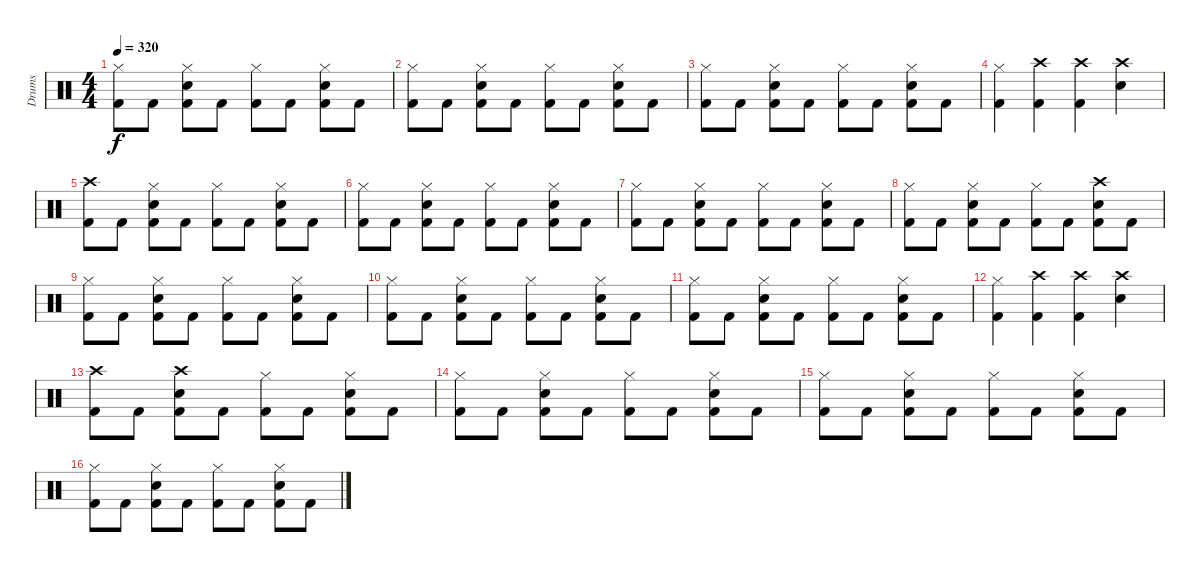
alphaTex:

\track ("Drums" "Drums") {instrument percussion}
\staff {score}
\articulation defaults
\ts (4 4)
\tempo 320
\clef neutral
\ks c
("Hi-Hat (closed)" "Kick (hit) 2").8{dy f} "Kick (hit) 2".8 ("Hi-Hat (closed)" "Snare (hit) 2" "Kick (hit) 2").8 "Kick (hit) 2".8 ("Kick (hit) 2" "Hi-Hat (closed)").8 "Kick (hit) 2".8 ("Hi-Hat (closed)" "Snare (hit) 2" "Kick (hit) 2").8 "Kick (hit) 2".8 |
("Hi-Hat (closed)" "Kick (hit) 2").8 "Kick (hit) 2".8 ("Snare (hit) 2" "Hi-Hat (closed)" "Kick (hit) 2").8 "Kick (hit) 2".8 ("Kick (hit) 2" "Hi-Hat (closed)").8 "Kick (hit) 2".8 ("Snare (hit) 2" "Hi-Hat (closed)" "Kick (hit) 2").8 "Kick (hit) 2".8 |
("Hi-Hat (closed)" "Kick (hit) 2").8 "Kick (hit) 2".8 ("Kick (hit) 2" "Snare (hit) 2" "Hi-Hat (closed)").8 "Kick (hit) 2".8 ("Hi-Hat (closed)" "Kick (hit) 2").8 "Kick (hit) 2".8 ("Snare (hit) 2" "Hi-Hat (closed)" "Kick (hit) 2").8 "Kick (hit) 2".8 |
("Kick (hit) 2" "Hi-Hat (closed)").4 ("Kick (hit) 2" "Crash high (hit)").4 ("Crash high (hit)" "Kick (hit) 2").4 ("Snare (hit) 2" "Crash high (hit)").4 |
("Kick (hit) 2" "Crash high (hit)").8 "Kick (hit) 2".8 ("Kick (hit) 2" "Snare (hit) 2" "Hi-Hat (closed)").8 "Kick (hit) 2".8 ("Kick (hit) 2" "Hi-Hat (closed)").8 "Kick (hit) 2".8 ("Hi-Hat (closed)" "Snare (hit) 2" "Kick (hit) 2").8 "Kick (hit) 2".8 |
("Kick (hit) 2" "Hi-Hat (closed)").8 "Kick (hit) 2".8 ("Kick (hit) 2" "Hi-Hat (closed)" "Snare (hit) 2").8 "Kick (hit) 2".8 ("Kick (hit) 2" "Hi-Hat (closed)").8 "Kick (hit) 2".8 ("Snare (hit) 2" "Hi-Hat (closed)" "Kick (hit) 2").8 "Kick (hit) 2".8 |
("Kick (hit) 2" "Hi-Hat (closed)").8 "Kick (hit) 2".8 ("Snare (hit) 2" "Kick (hit) 2" "Hi-Hat (closed)").8 "Kick (hit) 2".8 ("Hi-Hat (closed)" "Kick (hit) 2").8 "Kick (hit) 2".8 ("Snare (hit) 2" "Hi-Hat (closed)" "Kick (hit) 2").8 "Kick (hit) 2".8 |
("Kick (hit) 2" "Hi-Hat (closed)").8 "Kick (hit) 2".8 ("Snare (hit) 2" "Kick (hit) 2" "Hi-Hat (closed)").8 "Kick (hit) 2".8 ("Hi-Hat (closed)" "Kick (hit) 2").8 "Kick (hit) 2".8 ("Snare (hit) 2" "Crash high (hit)" "Kick (hit) 2").8 "Kick (hit) 2".8 |
("Hi-Hat (closed)" "Kick (hit) 2").8 "Kick (hit) 2".8 ("Hi-Hat (closed)" "Snare (hit) 2" "Kick (hit) 2").8 "Kick (hit) 2".8 ("Kick (hit) 2" "Hi-Hat (closed)").8 "Kick (hit) 2".8 ("Hi-Hat (closed)" "Snare (hit) 2" "Kick (hit) 2").8 "Kick (hit) 2".8 |
("Hi-Hat (closed)" "Kick (hit) 2").8 "Kick (hit) 2".8 ("Snare (hit) 2" "Hi-Hat (closed)" "Kick (hit) 2").8 "Kick (hit) 2".8 ("Kick (hit) 2" "Hi-Hat (closed)").8 "Kick (hit) 2".8 ("Snare (hit) 2" "Hi-Hat (closed)" "Kick (hit) 2").8 "Kick (hit) 2".8 |
("Hi-Hat (closed)" "Kick (hit) 2").8 "Kick (hit) 2".8 ("Kick (hit) 2" "Snare (hit) 2" "Hi-Hat (closed)").8 "Kick (hit) 2".8 ("Hi-Hat (closed)" "Kick (hit) 2").8 "Kick (hit) 2".8 ("Snare (hit) 2" "Hi-Hat (closed)" "Kick (hit) 2").8 "Kick (hit) 2".8 |
("Kick (hit) 2" "Hi-Hat (closed)").4 ("Kick (hit) 2" "Crash high (hit)").4 ("Crash high (hit)" "Kick (hit) 2").4 ("Snare (hit) 2" "Crash high (hit)").4 |
("Crash high (hit)" "Kick (hit) 2").8 "Kick (hit) 2".8 ("Snare (hit) 2" "Crash high (hit)" "Kick (hit) 2").8 "Kick (hit) 2".8 ("Kick (hit) 2" "Hi-Hat (closed)").8 "Kick (hit) 2".8 ("Kick (hit) 2" "Hi-Hat (closed)" "Snare (hit) 2").8 "Kick (hit) 2".8 |
("Hi-Hat (closed)" "Kick (hit) 2").8 "Kick (hit) 2".8 ("Snare (hit) 2" "Hi-Hat (closed)" "Kick (hit) 2").8 "Kick (hit) 2".8 ("Kick (hit) 2" "Hi-Hat (closed)").8 "Kick (hit) 2".8 ("Kick (hit) 2" "Snare (hit) 2" "Hi-Hat (closed)").8 "Kick (hit) 2".8 |
("Hi-Hat (closed)" "Kick (hit) 2").8 "Kick (hit) 2".8 ("Kick (hit) 2" "Hi-Hat (closed)" "Snare (hit) 2").8 "Kick (hit) 2".8 ("Hi-Hat (closed)" "Kick (hit) 2").8 "Kick (hit) 2".8 ("Snare (hit) 2" "Hi-Hat (closed)" "Kick (hit) 2").8 "Kick (hit) 2".8 |
("Hi-Hat (closed)" "Kick (hit) 2").8 "Kick (hit) 2".8 ("Snare (hit) 2" "Hi-Hat (closed)" "Kick (hit) 2").8 "Kick (hit) 2".8 ("Kick (hit) 2" "Hi-Hat (closed)").8 "Kick (hit) 2".8 ("Hi-Hat (closed)" "Kick (hit) 2" "Snare (hit) 2").8 "Kick (hit) 2".8
